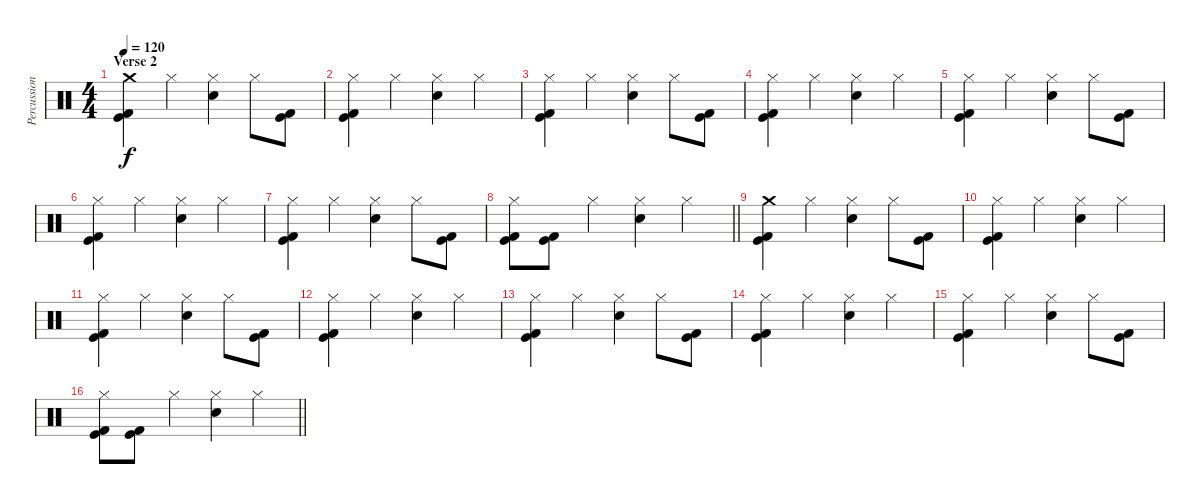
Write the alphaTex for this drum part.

\track ("Percussion" "Percussion") {instrument percussion}
\staff {score}
\articulation defaults
\ts (4 4)
\section ("" "Verse 2")
\tempo 120
\clef neutral
\ks c
("Crash medium (hit)" "Kick (hit)" "Kick (hit) 2").4{dy f} "Hi-Hat (closed)".4 ("Hi-Hat (closed)" "Electric Snare (hit)").4 "Hi-Hat (closed)".8 ("Kick (hit)" "Kick (hit) 2").8 |
("Hi-Hat (closed)" "Kick (hit)" "Kick (hit) 2").4 "Hi-Hat (closed)".4 ("Hi-Hat (closed)" "Electric Snare (hit)").4 "Hi-Hat (closed)".4 |
("Hi-Hat (closed)" "Kick (hit)" "Kick (hit) 2").4 "Hi-Hat (closed)".4 ("Hi-Hat (closed)" "Electric Snare (hit)").4 "Hi-Hat (closed)".8 ("Kick (hit)" "Kick (hit) 2").8 |
("Hi-Hat (closed)" "Kick (hit)" "Kick (hit) 2").4 "Hi-Hat (closed)".4 ("Hi-Hat (closed)" "Electric Snare (hit)").4 "Hi-Hat (closed)".4 |
("Hi-Hat (closed)" "Kick (hit)" "Kick (hit) 2").4 "Hi-Hat (closed)".4 ("Hi-Hat (closed)" "Electric Snare (hit)").4 "Hi-Hat (closed)".8 ("Kick (hit)" "Kick (hit) 2").8 |
("Hi-Hat (closed)" "Kick (hit)" "Kick (hit) 2").4 "Hi-Hat (closed)".4 ("Hi-Hat (closed)" "Electric Snare (hit)").4 "Hi-Hat (closed)".4 |
("Hi-Hat (closed)" "Kick (hit)" "Kick (hit) 2").4 "Hi-Hat (closed)".4 ("Hi-Hat (closed)" "Electric Snare (hit)").4 "Hi-Hat (closed)".8 ("Kick (hit)" "Kick (hit) 2").8 |
\barLineRight lightlight
("Hi-Hat (closed)" "Kick (hit)" "Kick (hit) 2").8 ("Kick (hit)" "Kick (hit) 2").8 "Hi-Hat (closed)".4 ("Hi-Hat (closed)" "Electric Snare (hit)").4 "Hi-Hat (closed)".4 |
\section ("" "")
("Crash medium (hit)" "Kick (hit)" "Kick (hit) 2").4 "Hi-Hat (closed)".4 ("Hi-Hat (closed)" "Electric Snare (hit)").4 "Hi-Hat (closed)".8 ("Kick (hit)" "Kick (hit) 2").8 |
("Hi-Hat (closed)" "Kick (hit)" "Kick (hit) 2").4 "Hi-Hat (closed)".4 ("Hi-Hat (closed)" "Electric Snare (hit)").4 "Hi-Hat (closed)".4 |
("Hi-Hat (closed)" "Kick (hit)" "Kick (hit) 2").4 "Hi-Hat (closed)".4 ("Hi-Hat (closed)" "Electric Snare (hit)").4 "Hi-Hat (closed)".8 ("Kick (hit)" "Kick (hit) 2").8 |
("Hi-Hat (closed)" "Kick (hit)" "Kick (hit) 2").4 "Hi-Hat (closed)".4 ("Hi-Hat (closed)" "Electric Snare (hit)").4 "Hi-Hat (closed)".4 |
("Hi-Hat (closed)" "Kick (hit)" "Kick (hit) 2").4 "Hi-Hat (closed)".4 ("Hi-Hat (closed)" "Electric Snare (hit)").4 "Hi-Hat (closed)".8 ("Kick (hit)" "Kick (hit) 2").8 |
("Hi-Hat (closed)" "Kick (hit)" "Kick (hit) 2").4 "Hi-Hat (closed)".4 ("Hi-Hat (closed)" "Electric Snare (hit)").4 "Hi-Hat (closed)".4 |
("Hi-Hat (closed)" "Kick (hit)" "Kick (hit) 2").4 "Hi-Hat (closed)".4 ("Hi-Hat (closed)" "Electric Snare (hit)").4 "Hi-Hat (closed)".8 ("Kick (hit)" "Kick (hit) 2").8 |
\barLineRight lightlight
("Hi-Hat (closed)" "Kick (hit)" "Kick (hit) 2").8 ("Kick (hit)" "Kick (hit) 2").8 "Hi-Hat (closed)".4 ("Hi-Hat (closed)" "Electric Snare (hit)").4 "Hi-Hat (closed)".4
